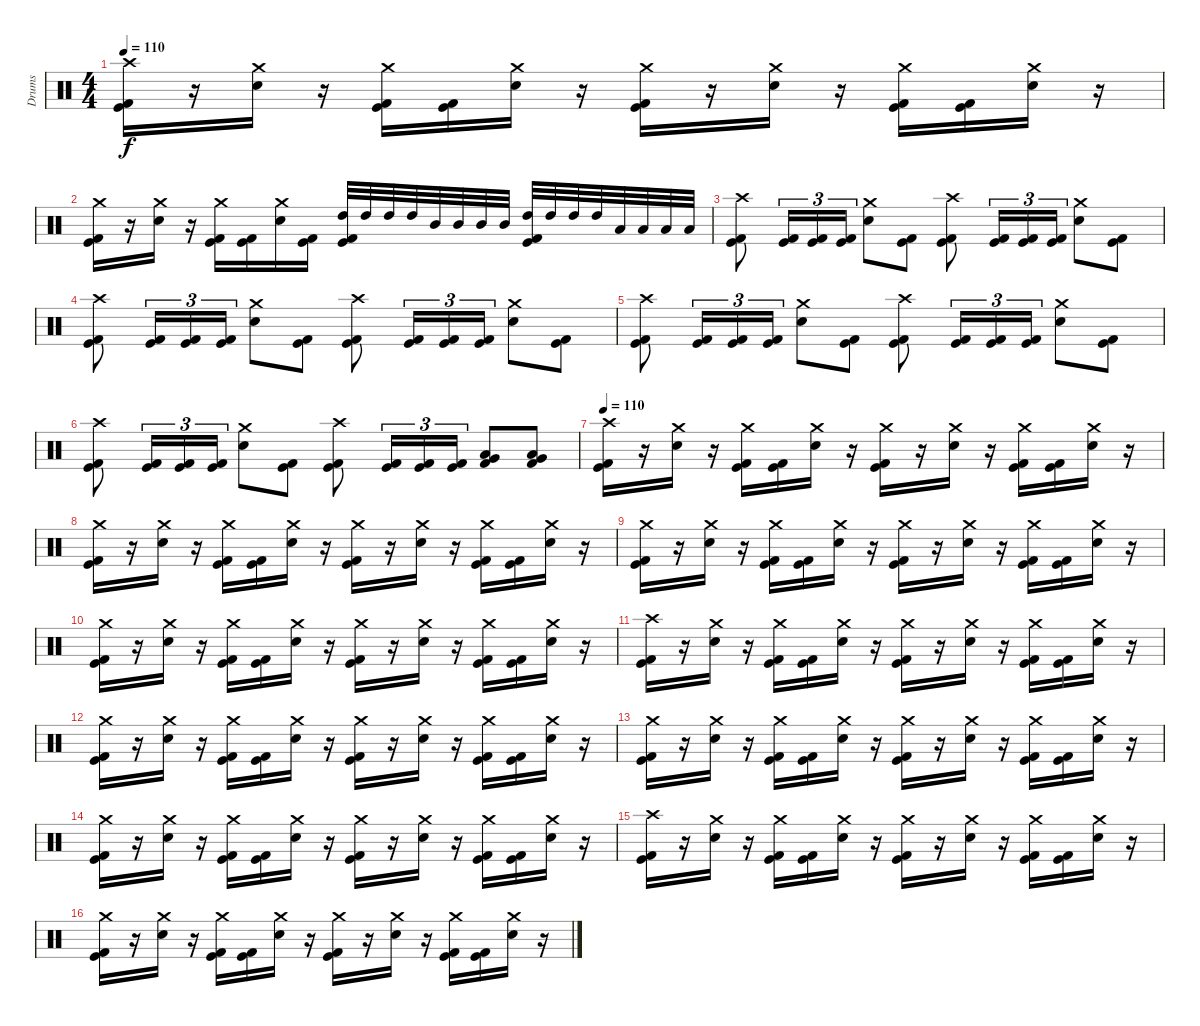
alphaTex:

\track ("Drums" "Drums") {instrument percussion}
\staff {score}
\articulation defaults
\ts (4 4)
\tempo 110
\clef neutral
\ks c
("Crash high (hit)" "Kick (hit)" "Kick (hit) 2").16{dy f} r.16 ("Crash medium (hit)" "Electric Snare (hit)").16 r.16 ("Crash medium (hit)" "Kick (hit)" "Kick (hit) 2").16 ("Kick (hit)" "Kick (hit) 2").16 ("Crash medium (hit)" "Electric Snare (hit)").16 r.16 ("Crash medium (hit)" "Kick (hit)" "Kick (hit) 2").16 r.16 ("Crash medium (hit)" "Electric Snare (hit)").16 r.16 ("Crash medium (hit)" "Kick (hit)" "Kick (hit) 2").16 ("Kick (hit)" "Kick (hit) 2").16 ("Crash medium (hit)" "Electric Snare (hit)").16 r.16 |
("Crash medium (hit)" "Kick (hit)" "Kick (hit) 2").16 r.16 ("Crash medium (hit)" "Electric Snare (hit)").16 r.16 ("Crash medium (hit)" "Kick (hit)" "Kick (hit) 2").16 ("Kick (hit)" "Kick (hit) 2").16 ("Crash medium (hit)" "Electric Snare (hit)").16 ("Kick (hit)" "Kick (hit) 2").16 ("High Tom (hit)" "Kick (hit)" "Kick (hit) 2").32 "High Tom (hit)".32 "High Tom (hit)".32 "High Tom (hit)".32 "Mid Tom (hit)".32 "Mid Tom (hit)".32 "Mid Tom (hit)".32 "Mid Tom (hit)".32 ("High Tom (hit)" "Kick (hit)" "Kick (hit) 2").32 "High Tom (hit)".32 "High Tom (hit)".32 "High Tom (hit)".32 "Low Tom (hit)".32 "Low Tom (hit)".32 "Low Tom (hit)".32 "Low Tom (hit)".32 |
("Crash high (hit)" "Kick (hit)" "Kick (hit) 2").8 ("Kick (hit)" "Kick (hit) 2").16{tu (3 2)} ("Kick (hit)" "Kick (hit) 2").16{tu (3 2)} ("Kick (hit)" "Kick (hit) 2").16{tu (3 2)} ("Crash medium (hit)" "Electric Snare (hit)").8 ("Kick (hit)" "Kick (hit) 2").8 ("Crash high (hit)" "Kick (hit)" "Kick (hit) 2").8 ("Kick (hit)" "Kick (hit) 2").16{tu (3 2)} ("Kick (hit)" "Kick (hit) 2").16{tu (3 2)} ("Kick (hit)" "Kick (hit) 2").16{tu (3 2)} ("Crash medium (hit)" "Electric Snare (hit)").8 ("Kick (hit)" "Kick (hit) 2").8 |
("Crash high (hit)" "Kick (hit)" "Kick (hit) 2").8 ("Kick (hit)" "Kick (hit) 2").16{tu (3 2)} ("Kick (hit)" "Kick (hit) 2").16{tu (3 2)} ("Kick (hit)" "Kick (hit) 2").16{tu (3 2)} ("Crash medium (hit)" "Electric Snare (hit)").8 ("Kick (hit)" "Kick (hit) 2").8 ("Crash high (hit)" "Kick (hit)" "Kick (hit) 2").8 ("Kick (hit)" "Kick (hit) 2").16{tu (3 2)} ("Kick (hit)" "Kick (hit) 2").16{tu (3 2)} ("Kick (hit)" "Kick (hit) 2").16{tu (3 2)} ("Crash medium (hit)" "Electric Snare (hit)").8 ("Kick (hit)" "Kick (hit) 2").8 |
("Crash high (hit)" "Kick (hit)" "Kick (hit) 2").8 ("Kick (hit)" "Kick (hit) 2").16{tu (3 2)} ("Kick (hit)" "Kick (hit) 2").16{tu (3 2)} ("Kick (hit)" "Kick (hit) 2").16{tu (3 2)} ("Crash medium (hit)" "Electric Snare (hit)").8 ("Kick (hit)" "Kick (hit) 2").8 ("Crash high (hit)" "Kick (hit)" "Kick (hit) 2").8 ("Kick (hit)" "Kick (hit) 2").16{tu (3 2)} ("Kick (hit)" "Kick (hit) 2").16{tu (3 2)} ("Kick (hit)" "Kick (hit) 2").16{tu (3 2)} ("Crash medium (hit)" "Electric Snare (hit)").8 ("Kick (hit)" "Kick (hit) 2").8 |
("Crash high (hit)" "Kick (hit)" "Kick (hit) 2").8 ("Kick (hit)" "Kick (hit) 2").16{tu (3 2)} ("Kick (hit)" "Kick (hit) 2").16{tu (3 2)} ("Kick (hit)" "Kick (hit) 2").16{tu (3 2)} ("Crash medium (hit)" "Electric Snare (hit)").8 ("Kick (hit)" "Kick (hit) 2").8 ("Crash high (hit)" "Kick (hit)" "Kick (hit) 2").8 ("Kick (hit)" "Kick (hit) 2").16{tu (3 2)} ("Kick (hit)" "Kick (hit) 2").16{tu (3 2)} ("Kick (hit)" "Kick (hit) 2").16{tu (3 2)} ("Low Tom (hit)" "Very Low Tom (hit)" "Kick (hit) 2").8 ("Low Tom (hit)" "Very Low Tom (hit)" "Kick (hit) 2").8 |
\tempo 110
("Crash high (hit)" "Kick (hit)" "Kick (hit) 2").16 r.16 ("Crash medium (hit)" "Electric Snare (hit)").16 r.16 ("Crash medium (hit)" "Kick (hit)" "Kick (hit) 2").16 ("Kick (hit)" "Kick (hit) 2").16 ("Crash medium (hit)" "Electric Snare (hit)").16 r.16 ("Crash medium (hit)" "Kick (hit)" "Kick (hit) 2").16 r.16 ("Crash medium (hit)" "Electric Snare (hit)").16 r.16 ("Crash medium (hit)" "Kick (hit)" "Kick (hit) 2").16 ("Kick (hit)" "Kick (hit) 2").16 ("Crash medium (hit)" "Electric Snare (hit)").16 r.16 |
("Crash medium (hit)" "Kick (hit)" "Kick (hit) 2").16 r.16 ("Crash medium (hit)" "Electric Snare (hit)").16 r.16 ("Crash medium (hit)" "Kick (hit)" "Kick (hit) 2").16 ("Kick (hit)" "Kick (hit) 2").16 ("Crash medium (hit)" "Electric Snare (hit)").16 r.16 ("Crash medium (hit)" "Kick (hit)" "Kick (hit) 2").16 r.16 ("Crash medium (hit)" "Electric Snare (hit)").16 r.16 ("Crash medium (hit)" "Kick (hit)" "Kick (hit) 2").16 ("Kick (hit)" "Kick (hit) 2").16 ("Crash medium (hit)" "Electric Snare (hit)").16 r.16 |
("Crash medium (hit)" "Kick (hit)" "Kick (hit) 2").16 r.16 ("Crash medium (hit)" "Electric Snare (hit)").16 r.16 ("Crash medium (hit)" "Kick (hit)" "Kick (hit) 2").16 ("Kick (hit)" "Kick (hit) 2").16 ("Crash medium (hit)" "Electric Snare (hit)").16 r.16 ("Crash medium (hit)" "Kick (hit)" "Kick (hit) 2").16 r.16 ("Crash medium (hit)" "Electric Snare (hit)").16 r.16 ("Crash medium (hit)" "Kick (hit)" "Kick (hit) 2").16 ("Kick (hit)" "Kick (hit) 2").16 ("Crash medium (hit)" "Electric Snare (hit)").16 r.16 |
("Crash medium (hit)" "Kick (hit)" "Kick (hit) 2").16 r.16 ("Crash medium (hit)" "Electric Snare (hit)").16 r.16 ("Crash medium (hit)" "Kick (hit)" "Kick (hit) 2").16 ("Kick (hit)" "Kick (hit) 2").16 ("Crash medium (hit)" "Electric Snare (hit)").16 r.16 ("Crash medium (hit)" "Kick (hit)" "Kick (hit) 2").16 r.16 ("Crash medium (hit)" "Electric Snare (hit)").16 r.16 ("Crash medium (hit)" "Kick (hit)" "Kick (hit) 2").16 ("Kick (hit)" "Kick (hit) 2").16 ("Crash medium (hit)" "Electric Snare (hit)").16 r.16 |
("Crash high (hit)" "Kick (hit)" "Kick (hit) 2").16 r.16 ("Crash medium (hit)" "Electric Snare (hit)").16 r.16 ("Crash medium (hit)" "Kick (hit)" "Kick (hit) 2").16 ("Kick (hit)" "Kick (hit) 2").16 ("Crash medium (hit)" "Electric Snare (hit)").16 r.16 ("Crash medium (hit)" "Kick (hit)" "Kick (hit) 2").16 r.16 ("Crash medium (hit)" "Electric Snare (hit)").16 r.16 ("Crash medium (hit)" "Kick (hit)" "Kick (hit) 2").16 ("Kick (hit)" "Kick (hit) 2").16 ("Crash medium (hit)" "Electric Snare (hit)").16 r.16 |
("Crash medium (hit)" "Kick (hit)" "Kick (hit) 2").16 r.16 ("Crash medium (hit)" "Electric Snare (hit)").16 r.16 ("Crash medium (hit)" "Kick (hit)" "Kick (hit) 2").16 ("Kick (hit)" "Kick (hit) 2").16 ("Crash medium (hit)" "Electric Snare (hit)").16 r.16 ("Crash medium (hit)" "Kick (hit)" "Kick (hit) 2").16 r.16 ("Crash medium (hit)" "Electric Snare (hit)").16 r.16 ("Crash medium (hit)" "Kick (hit)" "Kick (hit) 2").16 ("Kick (hit)" "Kick (hit) 2").16 ("Crash medium (hit)" "Electric Snare (hit)").16 r.16 |
("Crash medium (hit)" "Kick (hit)" "Kick (hit) 2").16 r.16 ("Crash medium (hit)" "Electric Snare (hit)").16 r.16 ("Crash medium (hit)" "Kick (hit)" "Kick (hit) 2").16 ("Kick (hit)" "Kick (hit) 2").16 ("Crash medium (hit)" "Electric Snare (hit)").16 r.16 ("Crash medium (hit)" "Kick (hit)" "Kick (hit) 2").16 r.16 ("Crash medium (hit)" "Electric Snare (hit)").16 r.16 ("Crash medium (hit)" "Kick (hit)" "Kick (hit) 2").16 ("Kick (hit)" "Kick (hit) 2").16 ("Crash medium (hit)" "Electric Snare (hit)").16 r.16 |
("Crash medium (hit)" "Kick (hit)" "Kick (hit) 2").16 r.16 ("Crash medium (hit)" "Electric Snare (hit)").16 r.16 ("Crash medium (hit)" "Kick (hit)" "Kick (hit) 2").16 ("Kick (hit)" "Kick (hit) 2").16 ("Crash medium (hit)" "Electric Snare (hit)").16 r.16 ("Crash medium (hit)" "Kick (hit)" "Kick (hit) 2").16 r.16 ("Crash medium (hit)" "Electric Snare (hit)").16 r.16 ("Crash medium (hit)" "Kick (hit)" "Kick (hit) 2").16 ("Kick (hit)" "Kick (hit) 2").16 ("Crash medium (hit)" "Electric Snare (hit)").16 r.16 |
("Crash high (hit)" "Kick (hit)" "Kick (hit) 2").16 r.16 ("Crash medium (hit)" "Electric Snare (hit)").16 r.16 ("Crash medium (hit)" "Kick (hit)" "Kick (hit) 2").16 ("Kick (hit)" "Kick (hit) 2").16 ("Crash medium (hit)" "Electric Snare (hit)").16 r.16 ("Crash medium (hit)" "Kick (hit)" "Kick (hit) 2").16 r.16 ("Crash medium (hit)" "Electric Snare (hit)").16 r.16 ("Crash medium (hit)" "Kick (hit)" "Kick (hit) 2").16 ("Kick (hit)" "Kick (hit) 2").16 ("Crash medium (hit)" "Electric Snare (hit)").16 r.16 |
("Crash medium (hit)" "Kick (hit)" "Kick (hit) 2").16 r.16 ("Crash medium (hit)" "Electric Snare (hit)").16 r.16 ("Crash medium (hit)" "Kick (hit)" "Kick (hit) 2").16 ("Kick (hit)" "Kick (hit) 2").16 ("Crash medium (hit)" "Electric Snare (hit)").16 r.16 ("Crash medium (hit)" "Kick (hit)" "Kick (hit) 2").16 r.16 ("Crash medium (hit)" "Electric Snare (hit)").16 r.16 ("Crash medium (hit)" "Kick (hit)" "Kick (hit) 2").16 ("Kick (hit)" "Kick (hit) 2").16 ("Crash medium (hit)" "Electric Snare (hit)").16 r.16
